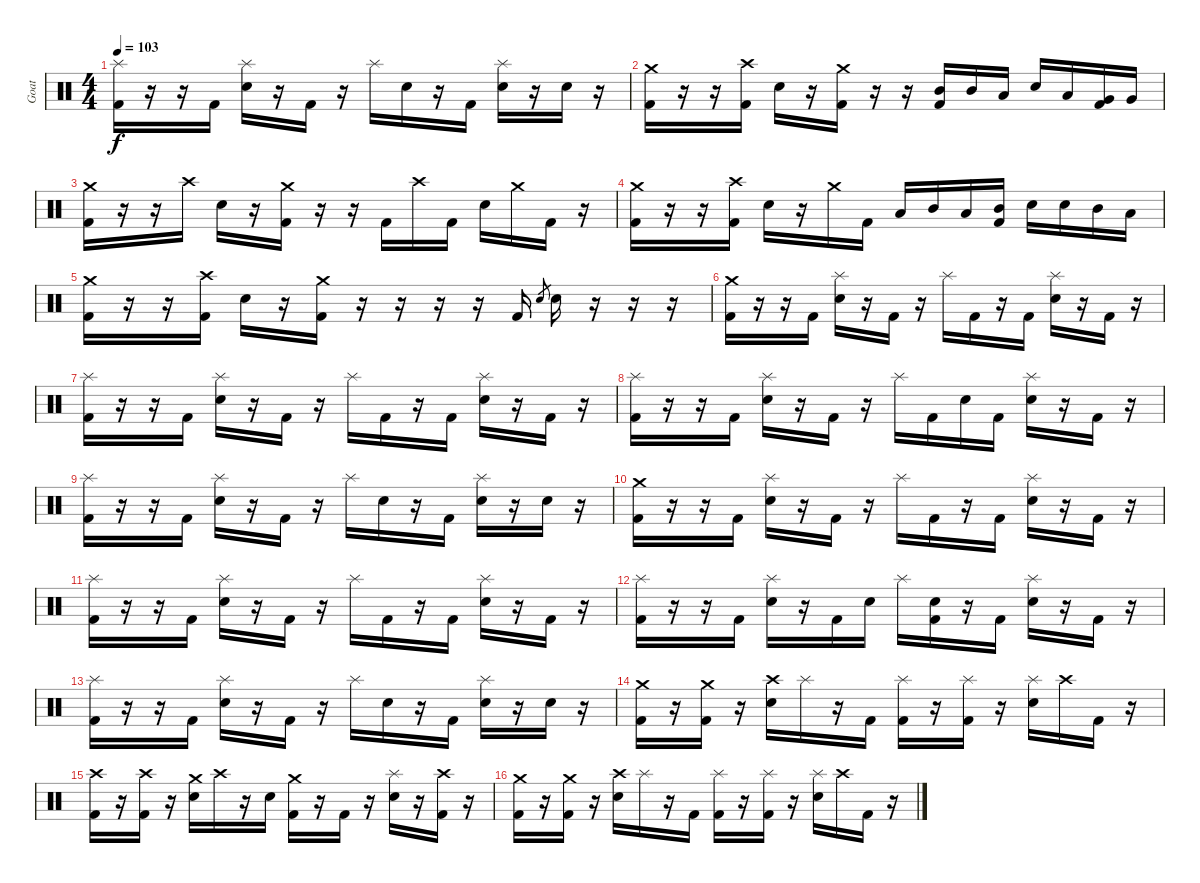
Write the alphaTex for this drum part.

\track ("Goat" "Goat") {instrument percussion}
\staff {score}
\articulation defaults
\ts (4 4)
\tempo 103
\clef neutral
\ks c
("Splash (hit)" "Kick (hit) 2").16{dy f} r.16 r.16 "Kick (hit) 2".16 ("Splash (hit)" "Electric Snare (hit)").16 r.16 "Kick (hit) 2".16 r.16 "Splash (hit)".16 "Electric Snare (hit)".16 r.16 "Kick (hit) 2".16 ("Splash (hit)" "Electric Snare (hit)").16 r.16 "Electric Snare (hit)".16 r.16 |
("Crash medium (hit)" "Kick (hit) 2").16 r.16 r.16 ("Crash high (hit)" "Kick (hit) 2").16 "Electric Snare (hit)".16 r.16 ("Crash medium (hit)" "Kick (hit) 2").16 r.16 r.16 ("Mid Tom (hit)" "Kick (hit) 2").16 "Mid Tom (hit)".16 "Low Tom (hit)".16 "Electric Snare (hit)".16 "Low Tom (hit)".16 ("Very Low Tom (hit)" "Kick (hit) 2").16 "Very Low Tom (hit)".16 |
("Crash medium (hit)" "Kick (hit) 2").16 r.16 r.16 "Crash high (hit)".16 "Electric Snare (hit)".16 r.16 ("Crash medium (hit)" "Kick (hit) 2").16 r.16 r.16 "Kick (hit) 2".16 "Crash high (hit)".16 "Kick (hit) 2".16 "Electric Snare (hit)".16 "Crash medium (hit)".16 "Kick (hit) 2".16 r.16 |
("Crash medium (hit)" "Kick (hit) 2").16 r.16 r.16 ("Crash high (hit)" "Kick (hit) 2").16 "Electric Snare (hit)".16 r.16 "Crash medium (hit)".16 "Kick (hit) 2".16 "Low Tom (hit)".16 "Mid Tom (hit)".16 "Low Tom (hit)".16 ("Mid Tom (hit)" "Kick (hit) 2").16 "Electric Snare (hit)".16 "Electric Snare (hit)".16 "Mid Tom (hit)".16 "Low Tom (hit)".16 |
("Crash medium (hit)" "Kick (hit) 2").16 r.16 r.16 ("Crash high (hit)" "Kick (hit) 2").16 "Electric Snare (hit)".16 r.16 ("Crash medium (hit)" "Kick (hit) 2").16 r.16 r.16 r.16 r.16 "Kick (hit) 2".16 "Electric Snare (hit)".8{gr} "Electric Snare (hit)".16 r.16 r.16 r.16 |
("Crash medium (hit)" "Kick (hit) 2").16 r.16 r.16 "Kick (hit) 2".16 ("Splash (hit)" "Electric Snare (hit)").16 r.16 "Kick (hit) 2".16 r.16 "Splash (hit)".16 "Kick (hit) 2".16 r.16 "Kick (hit) 2".16 ("Splash (hit)" "Electric Snare (hit)").16 r.16 "Kick (hit) 2".16 r.16 |
("Splash (hit)" "Kick (hit) 2").16 r.16 r.16 "Kick (hit) 2".16 ("Splash (hit)" "Electric Snare (hit)").16 r.16 "Kick (hit) 2".16 r.16 "Splash (hit)".16 "Kick (hit) 2".16 r.16 "Kick (hit) 2".16 ("Splash (hit)" "Electric Snare (hit)").16 r.16 "Kick (hit) 2".16 r.16 |
("Splash (hit)" "Kick (hit) 2").16 r.16 r.16 "Kick (hit) 2".16 ("Splash (hit)" "Electric Snare (hit)").16 r.16 "Kick (hit) 2".16 r.16 "Splash (hit)".16 "Kick (hit) 2".16 "Electric Snare (hit)".16 "Kick (hit) 2".16 ("Splash (hit)" "Electric Snare (hit)").16 r.16 "Kick (hit) 2".16 r.16 |
("Splash (hit)" "Kick (hit) 2").16 r.16 r.16 "Kick (hit) 2".16 ("Splash (hit)" "Electric Snare (hit)").16 r.16 "Kick (hit) 2".16 r.16 "Splash (hit)".16 "Electric Snare (hit)".16 r.16 "Kick (hit) 2".16 ("Splash (hit)" "Electric Snare (hit)").16 r.16 "Electric Snare (hit)".16 r.16 |
("Crash medium (hit)" "Kick (hit) 2").16 r.16 r.16 "Kick (hit) 2".16 ("Splash (hit)" "Electric Snare (hit)").16 r.16 "Kick (hit) 2".16 r.16 "Splash (hit)".16 "Kick (hit) 2".16 r.16 "Kick (hit) 2".16 ("Splash (hit)" "Electric Snare (hit)").16 r.16 "Kick (hit) 2".16 r.16 |
("Splash (hit)" "Kick (hit) 2").16 r.16 r.16 "Kick (hit) 2".16 ("Splash (hit)" "Electric Snare (hit)").16 r.16 "Kick (hit) 2".16 r.16 "Splash (hit)".16 "Kick (hit) 2".16 r.16 "Kick (hit) 2".16 ("Splash (hit)" "Electric Snare (hit)").16 r.16 "Kick (hit) 2".16 r.16 |
("Splash (hit)" "Kick (hit) 2").16 r.16 r.16 "Kick (hit) 2".16 ("Splash (hit)" "Electric Snare (hit)").16 r.16 "Kick (hit) 2".16 "Electric Snare (hit)".16 "Splash (hit)".16 ("Electric Snare (hit)" "Kick (hit) 2").16 r.16 "Kick (hit) 2".16 ("Splash (hit)" "Electric Snare (hit)").16 r.16 "Kick (hit) 2".16 r.16 |
("Splash (hit)" "Kick (hit) 2").16 r.16 r.16 "Kick (hit) 2".16 ("Splash (hit)" "Electric Snare (hit)").16 r.16 "Kick (hit) 2".16 r.16 "Splash (hit)".16 "Electric Snare (hit)".16 r.16 "Kick (hit) 2".16 ("Splash (hit)" "Electric Snare (hit)").16 r.16 "Electric Snare (hit)".16 r.16 |
("Crash medium (hit)" "Kick (hit) 2").16 r.16 ("Crash medium (hit)" "Kick (hit) 2").16 r.16 ("Crash high (hit)" "Electric Snare (hit)").16 "Splash (hit)".16 r.16 "Kick (hit) 2".16 ("Splash (hit)" "Kick (hit) 2").16 r.16 ("Splash (hit)" "Kick (hit) 2").16 r.16 ("Splash (hit)" "Electric Snare (hit)").16 "Crash high (hit)".16 "Kick (hit) 2".16 r.16 |
("Crash high (hit)" "Kick (hit) 2").16 r.16 ("Crash high (hit)" "Kick (hit) 2").16 r.16 ("Crash medium (hit)" "Electric Snare (hit)").16 "Crash high (hit)".16 r.16 "Electric Snare (hit)".16 ("Crash medium (hit)" "Kick (hit) 2").16 r.16 "Kick (hit) 2".16 r.16 ("Splash (hit)" "Electric Snare (hit)").16 r.16 ("Crash high (hit)" "Kick (hit) 2").16 r.16 |
("Crash medium (hit)" "Kick (hit) 2").16 r.16 ("Crash medium (hit)" "Kick (hit) 2").16 r.16 ("Crash high (hit)" "Electric Snare (hit)").16 "Splash (hit)".16 r.16 "Kick (hit) 2".16 ("Splash (hit)" "Kick (hit) 2").16 r.16 ("Splash (hit)" "Kick (hit) 2").16 r.16 ("Splash (hit)" "Electric Snare (hit)").16 "Crash high (hit)".16 "Kick (hit) 2".16 r.16
